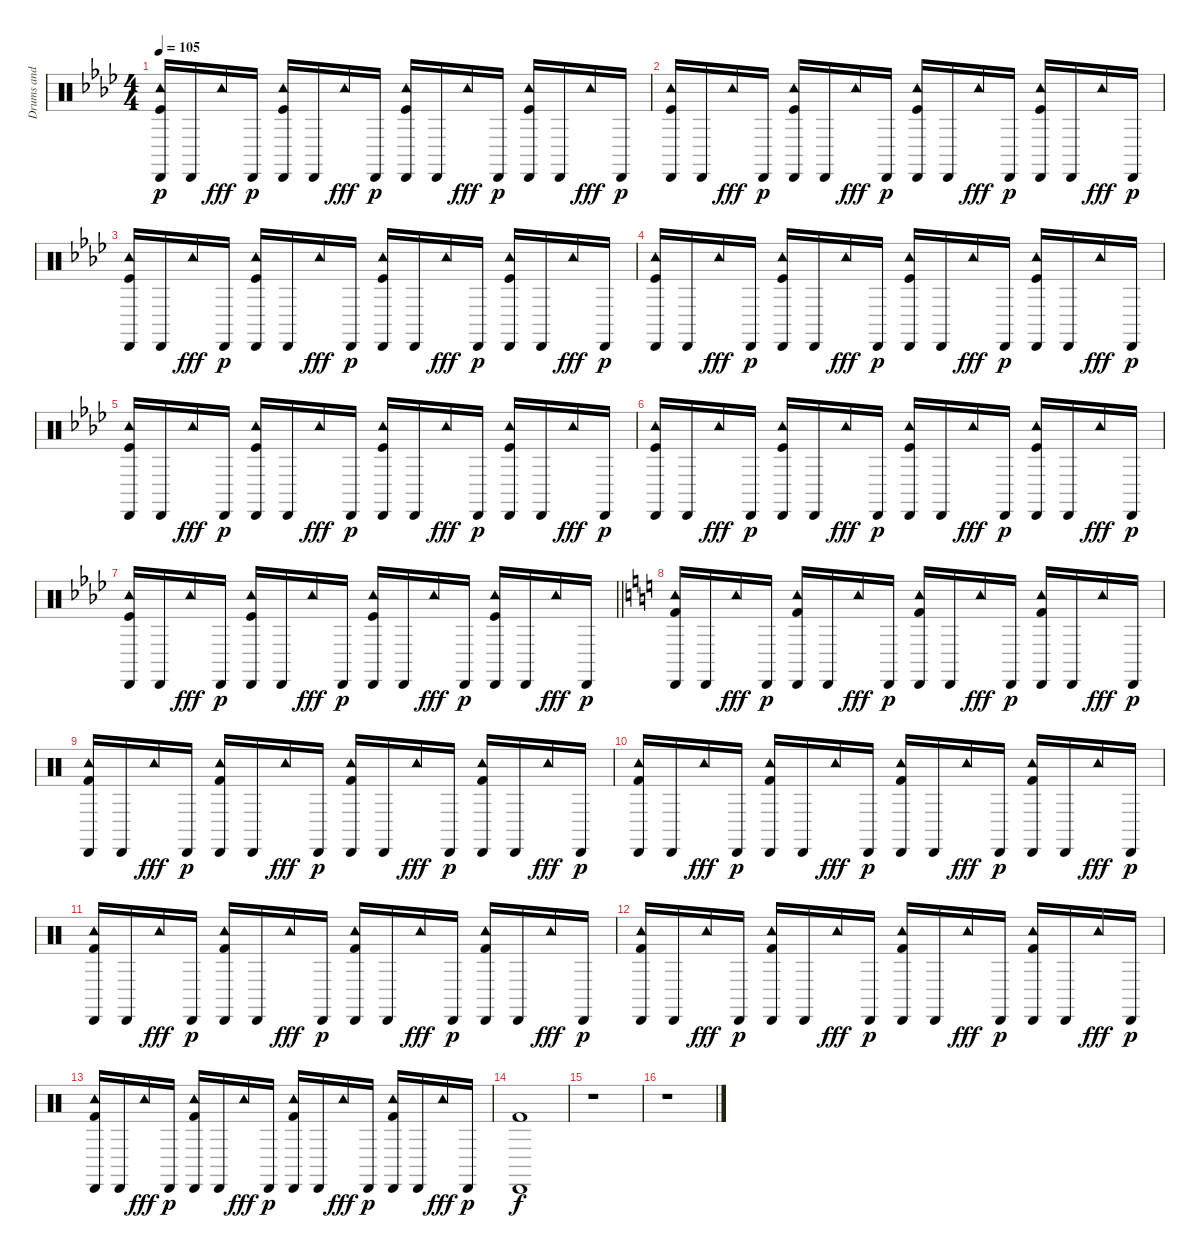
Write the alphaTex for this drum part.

\track ("Drums and percussion" "Drums and ") {instrument percussion}
\staff {score}
\articulation defaults
\ts (4 4)
\tempo 105
\clef neutral
\ks ab
("Cabasa (hit)" "Tambourine (hit)" "Kick (hit)").16{dy p} "Cabasa (hit)".16 "Tambourine (hit)".16{dy fff} "Cabasa (hit)".16{dy p} ("Cabasa (hit)" "Tambourine (hit)" "Kick (hit)").16 "Cabasa (hit)".16 "Tambourine (hit)".16{dy fff} "Cabasa (hit)".16{dy p} ("Cabasa (hit)" "Tambourine (hit)" "Kick (hit)").16 "Cabasa (hit)".16 "Tambourine (hit)".16{dy fff} "Cabasa (hit)".16{dy p} ("Cabasa (hit)" "Tambourine (hit)" "Kick (hit)").16 "Cabasa (hit)".16 "Tambourine (hit)".16{dy fff} "Cabasa (hit)".16{dy p} |
("Cabasa (hit)" "Tambourine (hit)" "Kick (hit)").16 "Cabasa (hit)".16 "Tambourine (hit)".16{dy fff} "Cabasa (hit)".16{dy p} ("Cabasa (hit)" "Tambourine (hit)" "Kick (hit)").16 "Cabasa (hit)".16 "Tambourine (hit)".16{dy fff} "Cabasa (hit)".16{dy p} ("Cabasa (hit)" "Tambourine (hit)" "Kick (hit)").16 "Cabasa (hit)".16 "Tambourine (hit)".16{dy fff} "Cabasa (hit)".16{dy p} ("Cabasa (hit)" "Tambourine (hit)" "Kick (hit)").16 "Cabasa (hit)".16 "Tambourine (hit)".16{dy fff} "Cabasa (hit)".16{dy p} |
("Cabasa (hit)" "Tambourine (hit)" "Kick (hit)").16 "Cabasa (hit)".16 "Tambourine (hit)".16{dy fff} "Cabasa (hit)".16{dy p} ("Cabasa (hit)" "Tambourine (hit)" "Kick (hit)").16 "Cabasa (hit)".16 "Tambourine (hit)".16{dy fff} "Cabasa (hit)".16{dy p} ("Cabasa (hit)" "Tambourine (hit)" "Kick (hit)").16 "Cabasa (hit)".16 "Tambourine (hit)".16{dy fff} "Cabasa (hit)".16{dy p} ("Cabasa (hit)" "Tambourine (hit)" "Kick (hit)").16 "Cabasa (hit)".16 "Tambourine (hit)".16{dy fff} "Cabasa (hit)".16{dy p} |
("Cabasa (hit)" "Tambourine (hit)" "Kick (hit)").16 "Cabasa (hit)".16 "Tambourine (hit)".16{dy fff} "Cabasa (hit)".16{dy p} ("Cabasa (hit)" "Tambourine (hit)" "Kick (hit)").16 "Cabasa (hit)".16 "Tambourine (hit)".16{dy fff} "Cabasa (hit)".16{dy p} ("Cabasa (hit)" "Tambourine (hit)" "Kick (hit)").16 "Cabasa (hit)".16 "Tambourine (hit)".16{dy fff} "Cabasa (hit)".16{dy p} ("Cabasa (hit)" "Tambourine (hit)" "Kick (hit)").16 "Cabasa (hit)".16 "Tambourine (hit)".16{dy fff} "Cabasa (hit)".16{dy p} |
("Cabasa (hit)" "Tambourine (hit)" "Kick (hit)").16 "Cabasa (hit)".16 "Tambourine (hit)".16{dy fff} "Cabasa (hit)".16{dy p} ("Cabasa (hit)" "Tambourine (hit)" "Kick (hit)").16 "Cabasa (hit)".16 "Tambourine (hit)".16{dy fff} "Cabasa (hit)".16{dy p} ("Cabasa (hit)" "Tambourine (hit)" "Kick (hit)").16 "Cabasa (hit)".16 "Tambourine (hit)".16{dy fff} "Cabasa (hit)".16{dy p} ("Cabasa (hit)" "Tambourine (hit)" "Kick (hit)").16 "Cabasa (hit)".16 "Tambourine (hit)".16{dy fff} "Cabasa (hit)".16{dy p} |
("Cabasa (hit)" "Tambourine (hit)" "Kick (hit)").16 "Cabasa (hit)".16 "Tambourine (hit)".16{dy fff} "Cabasa (hit)".16{dy p} ("Cabasa (hit)" "Tambourine (hit)" "Kick (hit)").16 "Cabasa (hit)".16 "Tambourine (hit)".16{dy fff} "Cabasa (hit)".16{dy p} ("Cabasa (hit)" "Tambourine (hit)" "Kick (hit)").16 "Cabasa (hit)".16 "Tambourine (hit)".16{dy fff} "Cabasa (hit)".16{dy p} ("Cabasa (hit)" "Tambourine (hit)" "Kick (hit)").16 "Cabasa (hit)".16 "Tambourine (hit)".16{dy fff} "Cabasa (hit)".16{dy p} |
\barLineRight lightlight
("Cabasa (hit)" "Tambourine (hit)" "Kick (hit)").16 "Cabasa (hit)".16 "Tambourine (hit)".16{dy fff} "Cabasa (hit)".16{dy p} ("Cabasa (hit)" "Tambourine (hit)" "Kick (hit)").16 "Cabasa (hit)".16 "Tambourine (hit)".16{dy fff} "Cabasa (hit)".16{dy p} ("Cabasa (hit)" "Tambourine (hit)" "Kick (hit)").16 "Cabasa (hit)".16 "Tambourine (hit)".16{dy fff} "Cabasa (hit)".16{dy p} ("Cabasa (hit)" "Tambourine (hit)" "Kick (hit)").16 "Cabasa (hit)".16 "Tambourine (hit)".16{dy fff} "Cabasa (hit)".16{dy p} |
\ks c
("Cabasa (hit)" "Tambourine (hit)" "Kick (hit) 2").16 "Cabasa (hit)".16 "Tambourine (hit)".16{dy fff} "Cabasa (hit)".16{dy p} ("Cabasa (hit)" "Tambourine (hit)" "Kick (hit) 2").16 "Cabasa (hit)".16 "Tambourine (hit)".16{dy fff} "Cabasa (hit)".16{dy p} ("Cabasa (hit)" "Tambourine (hit)" "Kick (hit) 2").16 "Cabasa (hit)".16 "Tambourine (hit)".16{dy fff} "Cabasa (hit)".16{dy p} ("Cabasa (hit)" "Tambourine (hit)" "Kick (hit) 2").16 "Cabasa (hit)".16 "Tambourine (hit)".16{dy fff} "Cabasa (hit)".16{dy p} |
("Cabasa (hit)" "Tambourine (hit)" "Kick (hit) 2").16 "Cabasa (hit)".16 "Tambourine (hit)".16{dy fff} "Cabasa (hit)".16{dy p} ("Cabasa (hit)" "Tambourine (hit)" "Kick (hit) 2").16 "Cabasa (hit)".16 "Tambourine (hit)".16{dy fff} "Cabasa (hit)".16{dy p} ("Cabasa (hit)" "Tambourine (hit)" "Kick (hit) 2").16 "Cabasa (hit)".16 "Tambourine (hit)".16{dy fff} "Cabasa (hit)".16{dy p} ("Cabasa (hit)" "Tambourine (hit)" "Kick (hit) 2").16 "Cabasa (hit)".16 "Tambourine (hit)".16{dy fff} "Cabasa (hit)".16{dy p} |
("Cabasa (hit)" "Tambourine (hit)" "Kick (hit) 2").16 "Cabasa (hit)".16 "Tambourine (hit)".16{dy fff} "Cabasa (hit)".16{dy p} ("Cabasa (hit)" "Tambourine (hit)" "Kick (hit) 2").16 "Cabasa (hit)".16 "Tambourine (hit)".16{dy fff} "Cabasa (hit)".16{dy p} ("Cabasa (hit)" "Tambourine (hit)" "Kick (hit) 2").16 "Cabasa (hit)".16 "Tambourine (hit)".16{dy fff} "Cabasa (hit)".16{dy p} ("Cabasa (hit)" "Tambourine (hit)" "Kick (hit) 2").16 "Cabasa (hit)".16 "Tambourine (hit)".16{dy fff} "Cabasa (hit)".16{dy p} |
("Cabasa (hit)" "Tambourine (hit)" "Kick (hit) 2").16 "Cabasa (hit)".16 "Tambourine (hit)".16{dy fff} "Cabasa (hit)".16{dy p} ("Cabasa (hit)" "Tambourine (hit)" "Kick (hit) 2").16 "Cabasa (hit)".16 "Tambourine (hit)".16{dy fff} "Cabasa (hit)".16{dy p} ("Cabasa (hit)" "Tambourine (hit)" "Kick (hit) 2").16 "Cabasa (hit)".16 "Tambourine (hit)".16{dy fff} "Cabasa (hit)".16{dy p} ("Cabasa (hit)" "Tambourine (hit)" "Kick (hit) 2").16 "Cabasa (hit)".16 "Tambourine (hit)".16{dy fff} "Cabasa (hit)".16{dy p} |
("Cabasa (hit)" "Tambourine (hit)" "Kick (hit) 2").16 "Cabasa (hit)".16 "Tambourine (hit)".16{dy fff} "Cabasa (hit)".16{dy p} ("Cabasa (hit)" "Tambourine (hit)" "Kick (hit) 2").16 "Cabasa (hit)".16 "Tambourine (hit)".16{dy fff} "Cabasa (hit)".16{dy p} ("Cabasa (hit)" "Tambourine (hit)" "Kick (hit) 2").16 "Cabasa (hit)".16 "Tambourine (hit)".16{dy fff} "Cabasa (hit)".16{dy p} ("Cabasa (hit)" "Tambourine (hit)" "Kick (hit) 2").16 "Cabasa (hit)".16 "Tambourine (hit)".16{dy fff} "Cabasa (hit)".16{dy p} |
("Cabasa (hit)" "Tambourine (hit)" "Kick (hit) 2").16 "Cabasa (hit)".16 "Tambourine (hit)".16{dy fff} "Cabasa (hit)".16{dy p} ("Cabasa (hit)" "Tambourine (hit)" "Kick (hit) 2").16 "Cabasa (hit)".16 "Tambourine (hit)".16{dy fff} "Cabasa (hit)".16{dy p} ("Cabasa (hit)" "Tambourine (hit)" "Kick (hit) 2").16 "Cabasa (hit)".16 "Tambourine (hit)".16{dy fff} "Cabasa (hit)".16{dy p} ("Cabasa (hit)" "Tambourine (hit)" "Kick (hit) 2").16 "Cabasa (hit)".16 "Tambourine (hit)".16{dy fff} "Cabasa (hit)".16{dy p} |
("Cabasa (hit)" "Kick (hit) 2").1{dy f} |
r.1 |
r.1
